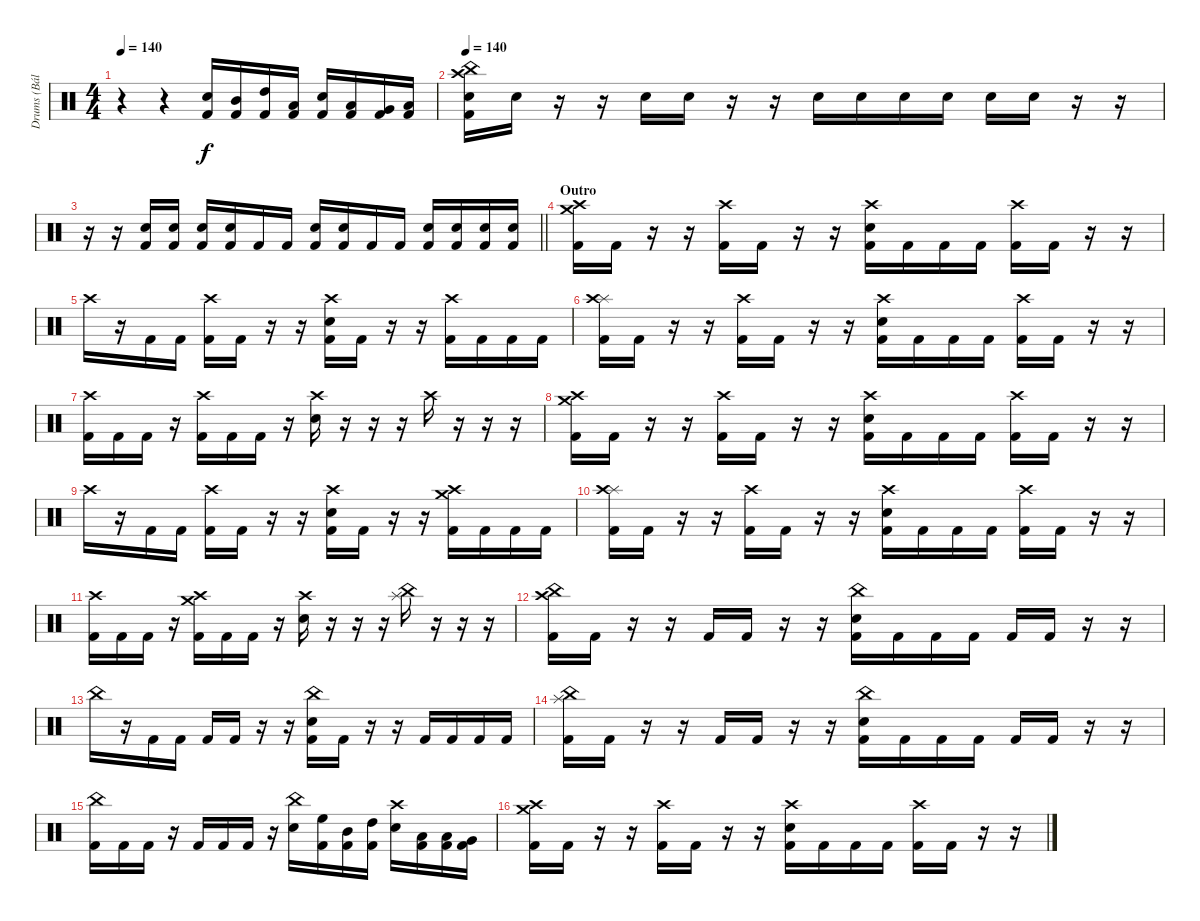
\track ("Drums (Bálint)" "Drums (Bál") {instrument percussion}
\staff {score}
\articulation defaults
\ts (4 4)
\tempo 140
\clef neutral
\ks c
r.4{dy f} r.4 ("Electric Snare (hit)" "Kick (hit) 2").16 ("Mid Tom (hit)" "Kick (hit) 2").16 ("High Tom (hit)" "Kick (hit) 2").16 ("Low Tom (hit)" "Kick (hit) 2").16 ("Electric Snare (hit)" "Kick (hit) 2").16 ("Low Tom (hit)" "Kick (hit) 2").16 ("Very Low Tom (hit)" "Kick (hit) 2").16 ("Low Floor Tom (hit)" "Kick (hit) 2").16 |
\tempo 140
("Crash high (hit)" "China (hit)" "Electric Snare (hit)" "Kick (hit) 2").16 "Electric Snare (hit)".16 r.16 r.16 "Electric Snare (hit)".16 "Electric Snare (hit)".16 r.16 r.16 "Electric Snare (hit)".16 "Electric Snare (hit)".16 "Electric Snare (hit)".16 "Electric Snare (hit)".16 "Electric Snare (hit)".16 "Electric Snare (hit)".16 r.16 r.16 |
\barLineRight lightlight
r.16 r.16 ("Electric Snare (hit)" "Kick (hit) 2").16 ("Electric Snare (hit)" "Kick (hit) 2").16 ("Electric Snare (hit)" "Kick (hit) 2").16 ("Electric Snare (hit)" "Kick (hit) 2").16 "Kick (hit) 2".16 "Kick (hit) 2".16 ("Electric Snare (hit)" "Kick (hit) 2").16 ("Electric Snare (hit)" "Kick (hit) 2").16 "Kick (hit) 2".16 "Kick (hit) 2".16 ("Electric Snare (hit)" "Kick (hit) 2").16 ("Electric Snare (hit)" "Kick (hit) 2").16 ("Electric Snare (hit)" "Kick (hit) 2").16 ("Electric Snare (hit)" "Kick (hit) 2").16 |
\section ("" "Outro")
("Crash medium (hit)" "Crash high (hit)" "Kick (hit) 2").16 "Kick (hit) 2".16 r.16 r.16 ("Crash high (hit)" "Kick (hit) 2").16 "Kick (hit) 2".16 r.16 r.16 ("Crash high (hit)" "Electric Snare (hit)" "Kick (hit) 2").16 "Kick (hit) 2".16 "Kick (hit) 2".16 "Kick (hit) 2".16 ("Crash high (hit)" "Kick (hit) 2").16 "Kick (hit) 2".16 r.16 r.16 |
"Crash high (hit)".16 r.16 "Kick (hit) 2".16 "Kick (hit) 2".16 ("Crash high (hit)" "Kick (hit) 2").16 "Kick (hit) 2".16 r.16 r.16 ("Crash high (hit)" "Electric Snare (hit)" "Kick (hit) 2").16 "Kick (hit) 2".16 r.16 r.16 ("Crash high (hit)" "Kick (hit) 2").16 "Kick (hit) 2".16 "Kick (hit) 2".16 "Kick (hit) 2".16 |
("Splash (hit)" "Crash high (hit)" "Kick (hit) 2").16 "Kick (hit) 2".16 r.16 r.16 ("Crash high (hit)" "Kick (hit) 2").16 "Kick (hit) 2".16 r.16 r.16 ("Crash high (hit)" "Electric Snare (hit)" "Kick (hit) 2").16 "Kick (hit) 2".16 "Kick (hit) 2".16 "Kick (hit) 2".16 ("Crash high (hit)" "Kick (hit) 2").16 "Kick (hit) 2".16 r.16 r.16 |
("Crash high (hit)" "Kick (hit) 2").16 "Kick (hit) 2".16 "Kick (hit) 2".16 r.16 ("Crash high (hit)" "Kick (hit) 2").16 "Kick (hit) 2".16 "Kick (hit) 2".16 r.16 ("Crash high (hit)" "Electric Snare (hit)").16 r.16 r.16 r.16 "Crash high (hit)".16 r.16 r.16 r.16 |
("Crash medium (hit)" "Crash high (hit)" "Kick (hit) 2").16 "Kick (hit) 2".16 r.16 r.16 ("Crash high (hit)" "Kick (hit) 2").16 "Kick (hit) 2".16 r.16 r.16 ("Crash high (hit)" "Electric Snare (hit)" "Kick (hit) 2").16 "Kick (hit) 2".16 "Kick (hit) 2".16 "Kick (hit) 2".16 ("Crash high (hit)" "Kick (hit) 2").16 "Kick (hit) 2".16 r.16 r.16 |
"Crash high (hit)".16 r.16 "Kick (hit) 2".16 "Kick (hit) 2".16 ("Crash high (hit)" "Kick (hit) 2").16 "Kick (hit) 2".16 r.16 r.16 ("Crash high (hit)" "Electric Snare (hit)" "Kick (hit) 2").16 "Kick (hit) 2".16 r.16 r.16 ("Crash medium (hit)" "Crash high (hit)" "Kick (hit) 2").16 "Kick (hit) 2".16 "Kick (hit) 2".16 "Kick (hit) 2".16 |
("Splash (hit)" "Crash high (hit)" "Kick (hit) 2").16 "Kick (hit) 2".16 r.16 r.16 ("Crash high (hit)" "Kick (hit) 2").16 "Kick (hit) 2".16 r.16 r.16 ("Crash high (hit)" "Electric Snare (hit)" "Kick (hit) 2").16 "Kick (hit) 2".16 "Kick (hit) 2".16 "Kick (hit) 2".16 ("Crash high (hit)" "Kick (hit) 2").16 "Kick (hit) 2".16 r.16 r.16 |
("Crash high (hit)" "Kick (hit) 2").16 "Kick (hit) 2".16 "Kick (hit) 2".16 r.16 ("Crash medium (hit)" "Crash high (hit)" "Kick (hit) 2").16 "Kick (hit) 2".16 "Kick (hit) 2".16 r.16 ("Crash high (hit)" "Electric Snare (hit)").16 r.16 r.16 r.16 ("China (hit)" "Splash (hit)").16 r.16 r.16 r.16 |
("Crash high (hit)" "China (hit)" "Kick (hit) 2").16 "Kick (hit) 2".16 r.16 r.16 "Kick (hit) 2".16 "Kick (hit) 2".16 r.16 r.16 ("China (hit)" "Electric Snare (hit)" "Kick (hit) 2").16 "Kick (hit) 2".16 "Kick (hit) 2".16 "Kick (hit) 2".16 "Kick (hit) 2".16 "Kick (hit) 2".16 r.16 r.16 |
"China (hit)".16 r.16 "Kick (hit) 2".16 "Kick (hit) 2".16 "Kick (hit) 2".16 "Kick (hit) 2".16 r.16 r.16 ("China (hit)" "Electric Snare (hit)" "Kick (hit) 2").16 "Kick (hit) 2".16 r.16 r.16 "Kick (hit) 2".16 "Kick (hit) 2".16 "Kick (hit) 2".16 "Kick (hit) 2".16 |
("Splash (hit)" "China (hit)" "Kick (hit) 2").16 "Kick (hit) 2".16 r.16 r.16 "Kick (hit) 2".16 "Kick (hit) 2".16 r.16 r.16 ("China (hit)" "Electric Snare (hit)" "Kick (hit) 2").16 "Kick (hit) 2".16 "Kick (hit) 2".16 "Kick (hit) 2".16 "Kick (hit) 2".16 "Kick (hit) 2".16 r.16 r.16 |
("China (hit)" "Kick (hit) 2").16 "Kick (hit) 2".16 "Kick (hit) 2".16 r.16 "Kick (hit) 2".16 "Kick (hit) 2".16 "Kick (hit) 2".16 r.16 ("China (hit)" "Electric Snare (hit)").16 ("High Floor Tom (hit)" "Kick (hit) 2").16 ("Mid Tom (hit)" "Kick (hit) 2").16 ("High Tom (hit)" "Kick (hit) 2").16 ("Crash high (hit)" "Electric Snare (hit)").16 ("Low Tom (hit)" "Kick (hit) 2").16 ("Low Floor Tom (hit)" "Kick (hit) 2").16 ("Very Low Tom (hit)" "Kick (hit) 2").16 |
("Crash medium (hit)" "Crash high (hit)" "Kick (hit) 2").16 "Kick (hit) 2".16 r.16 r.16 ("Crash high (hit)" "Kick (hit) 2").16 "Kick (hit) 2".16 r.16 r.16 ("Crash high (hit)" "Electric Snare (hit)" "Kick (hit) 2").16 "Kick (hit) 2".16 "Kick (hit) 2".16 "Kick (hit) 2".16 ("Crash high (hit)" "Kick (hit) 2").16 "Kick (hit) 2".16 r.16 r.16
